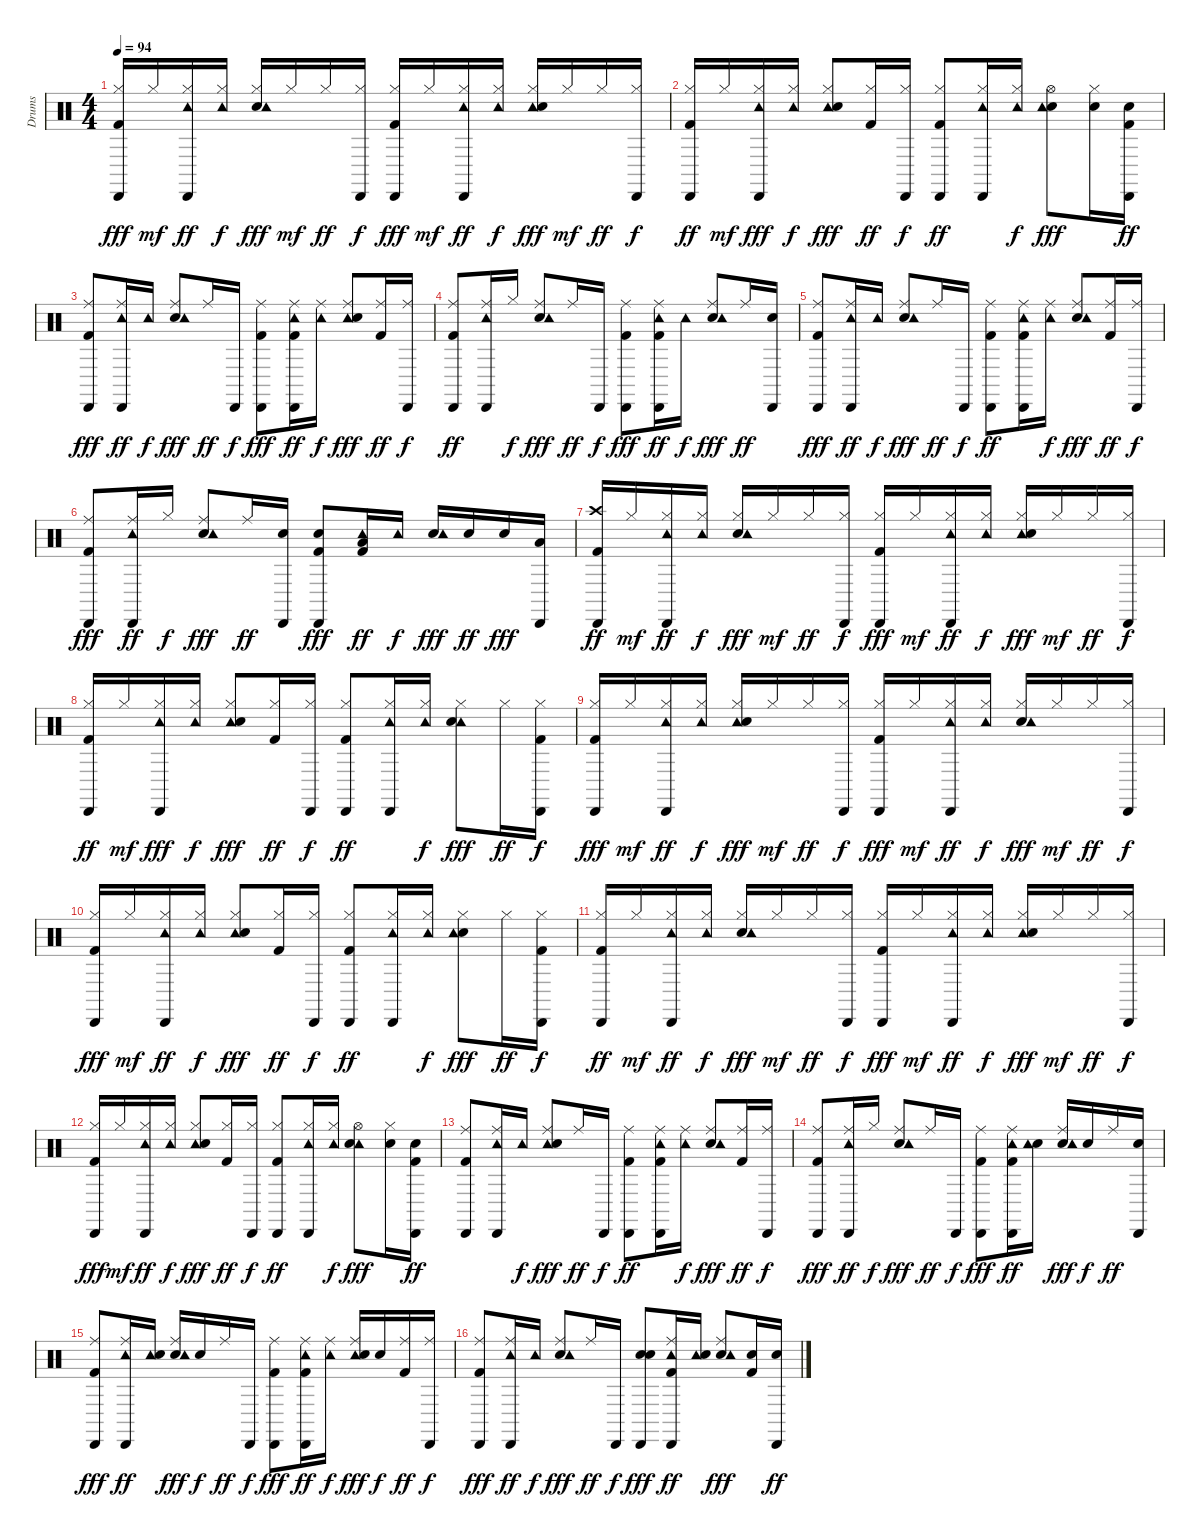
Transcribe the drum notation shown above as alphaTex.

\track ("Drums" "Drums") {instrument percussion}
\staff {score}
\articulation defaults
\ts (4 4)
\tempo 94
\clef neutral
\ks c
("Kick (hit) 2" "Cabasa (hit)" "Hi-Hat (closed)").16{dy fff} "Hi-Hat (closed)".16{dy mf} ("Hi-Hat (closed)" "Tambourine (hit)" "Cabasa (hit)").16{dy ff} ("Tambourine (hit)" "Hi-Hat (closed)").16{dy f} ("Snare (hit) 2" "Tambourine (hit)" "Hi-Hat (closed)").16{dy fff} "Hi-Hat (closed)".16{dy mf} "Hi-Hat (closed)".16{dy ff} ("Cabasa (hit)" "Hi-Hat (closed)").16{dy f} ("Hi-Hat (closed)" "Cabasa (hit)" "Kick (hit) 2").16{dy fff} "Hi-Hat (closed)".16{dy mf} ("Cabasa (hit)" "Tambourine (hit)" "Hi-Hat (closed)").16{dy ff} ("Hi-Hat (closed)" "Tambourine (hit)").16{dy f} ("Tambourine (hit)" "Snare (hit) 2" "Hi-Hat (closed)").16{dy fff} "Hi-Hat (closed)".16{dy mf} "Hi-Hat (closed)".16{dy ff} ("Hi-Hat (closed)" "Cabasa (hit)").16{dy f} |
("Kick (hit) 2" "Hi-Hat (closed)" "Cabasa (hit)").16{dy ff} "Hi-Hat (closed)".16{dy mf} ("Cabasa (hit)" "Hi-Hat (closed)" "Tambourine (hit)").16{dy fff} ("Tambourine (hit)" "Hi-Hat (closed)").16{dy f} ("Tambourine (hit)" "Hi-Hat (closed)" "Snare (hit) 2").8{dy fff} ("Hi-Hat (closed)" "Kick (hit) 2").16{dy ff} ("Cabasa (hit)" "Hi-Hat (closed)").16{dy f} ("Hi-Hat (closed)" "Kick (hit) 2" "Cabasa (hit)").8{dy ff} ("Cabasa (hit)" "Tambourine (hit)" "Hi-Hat (closed)").16 ("Tambourine (hit)" "Hi-Hat (closed)").16{dy f} ("Snare (hit) 2" "Tambourine (hit)" "Hi-Hat (open)").8{dy fff} ("Hi-Hat (closed)" "Snare (hit) 2").16 ("Cabasa (hit)" "Snare (hit) 2" "Kick (hit) 2").16{dy ff} |
("Cabasa (hit)" "Kick (hit) 2" "Ride (middle)").8{dy fff} ("Tambourine (hit)" "Cabasa (hit)" "Ride (middle)").16{dy ff} "Tambourine (hit)".16{dy f} ("Snare (hit) 2" "Ride (middle)" "Tambourine (hit)").8{dy fff} "Ride (middle)".16{dy ff} "Cabasa (hit)".16{dy f} ("Cabasa (hit)" "Kick (hit) 2" "Ride (middle)").8{dy fff} ("Kick (hit) 2" "Ride (middle)" "Cabasa (hit)" "Tambourine (hit)").16{dy ff} ("Ride (middle)" "Tambourine (hit)").16{dy f} ("Tambourine (hit)" "Snare (hit) 2" "Ride (middle)").8{dy fff} ("Kick (hit) 2" "Ride (middle)").16{dy ff} ("Ride (middle)" "Cabasa (hit)").16{dy f} |
("Ride (middle)" "Kick (hit) 2" "Cabasa (hit)").8{dy ff} ("Tambourine (hit)" "Ride (middle)" "Cabasa (hit)").16 "Hi-Hat (closed)".16{dy f} ("Ride (middle)" "Snare (hit) 2" "Tambourine (hit)").8{dy fff} "Ride (middle)".16{dy ff} "Cabasa (hit)".16{dy f} ("Cabasa (hit)" "Ride (middle)" "Kick (hit) 2").8{dy fff} ("Tambourine (hit)" "Ride (middle)" "Cabasa (hit)" "Kick (hit) 2").16{dy ff} "Tambourine (hit)".16{dy f} ("Snare (hit) 2" "Ride (middle)" "Tambourine (hit)").8{dy fff} "Ride (middle)".16{dy ff} ("Snare (hit) 2" "Cabasa (hit)").16 |
("Cabasa (hit)" "Kick (hit) 2" "Ride (middle)").8{dy fff} ("Ride (middle)" "Tambourine (hit)" "Cabasa (hit)").16{dy ff} "Tambourine (hit)".16{dy f} ("Ride (middle)" "Snare (hit) 2" "Tambourine (hit)").8{dy fff} "Ride (middle)".16{dy ff} "Cabasa (hit)".16{dy f} ("Ride (middle)" "Kick (hit) 2" "Cabasa (hit)").8{dy ff} ("Cabasa (hit)" "Kick (hit) 2" "Tambourine (hit)" "Ride (middle)").16 ("Ride (middle)" "Tambourine (hit)").16{dy f} ("Snare (hit) 2" "Tambourine (hit)" "Ride (middle)").8{dy fff} ("Ride (middle)" "Kick (hit) 2").16{dy ff} ("Ride (middle)" "Cabasa (hit)").16{dy f} |
("Cabasa (hit)" "Ride (middle)" "Kick (hit) 2").8{dy fff} ("Ride (middle)" "Cabasa (hit)" "Tambourine (hit)").16{dy ff} "Hi-Hat (closed)".16{dy f} ("Snare (hit) 2" "Ride (middle)" "Tambourine (hit)").8{dy fff} "Ride (middle)".16{dy ff} ("Snare (hit) 2" "Cabasa (hit)").16 ("Cabasa (hit)" "Snare (hit) 2" "Kick (hit) 2").8{dy fff} ("Tambourine (hit)" "Low Tom (hit)" "Kick (hit) 2").16{dy ff} "Tambourine (hit)".16{dy f} ("Snare (hit) 2" "Tambourine (hit)").16{dy fff} "Snare (hit) 2".16{dy ff} "Snare (hit) 2".16{dy fff} ("Low Floor Tom (hit)" "Cabasa (hit)").16 |
("Crash high (hit)" "Kick (hit) 2" "Cabasa (hit)").16{dy ff} "Hi-Hat (closed)".16{dy mf} ("Cabasa (hit)" "Hi-Hat (closed)" "Tambourine (hit)").16{dy ff} ("Tambourine (hit)" "Hi-Hat (closed)").16{dy f} ("Snare (hit) 2" "Hi-Hat (closed)" "Tambourine (hit)").16{dy fff} "Hi-Hat (closed)".16{dy mf} "Hi-Hat (closed)".16{dy ff} ("Cabasa (hit)" "Hi-Hat (closed)").16{dy f} ("Cabasa (hit)" "Kick (hit) 2" "Hi-Hat (closed)").16{dy fff} "Hi-Hat (closed)".16{dy mf} ("Hi-Hat (closed)" "Cabasa (hit)" "Tambourine (hit)").16{dy ff} ("Tambourine (hit)" "Hi-Hat (closed)").16{dy f} ("Tambourine (hit)" "Snare (hit) 2" "Hi-Hat (closed)").16{dy fff} "Hi-Hat (closed)".16{dy mf} "Hi-Hat (closed)".16{dy ff} ("Cabasa (hit)" "Hi-Hat (closed)").16{dy f} |
("Kick (hit) 2" "Hi-Hat (closed)" "Cabasa (hit)").16{dy ff} "Hi-Hat (closed)".16{dy mf} ("Cabasa (hit)" "Hi-Hat (closed)" "Tambourine (hit)").16{dy fff} ("Tambourine (hit)" "Hi-Hat (closed)").16{dy f} ("Tambourine (hit)" "Hi-Hat (closed)" "Snare (hit) 2").8{dy fff} ("Hi-Hat (closed)" "Kick (hit) 2").16{dy ff} ("Hi-Hat (closed)" "Cabasa (hit)").16{dy f} ("Kick (hit) 2" "Hi-Hat (closed)" "Cabasa (hit)").8{dy ff} ("Hi-Hat (closed)" "Cabasa (hit)" "Tambourine (hit)").16 ("Hi-Hat (closed)" "Tambourine (hit)").16{dy f} ("Tambourine (hit)" "Snare (hit) 2" "Hi-Hat (closed)").8{dy fff} "Hi-Hat (closed)".16{dy ff} ("Hi-Hat (closed)" "Kick (hit) 2" "Cabasa (hit)").16{dy f} |
("Hi-Hat (closed)" "Cabasa (hit)" "Kick (hit) 2").16{dy fff} "Hi-Hat (closed)".16{dy mf} ("Cabasa (hit)" "Hi-Hat (closed)" "Tambourine (hit)").16{dy ff} ("Tambourine (hit)" "Hi-Hat (closed)").16{dy f} ("Hi-Hat (closed)" "Tambourine (hit)" "Snare (hit) 2").16{dy fff} "Hi-Hat (closed)".16{dy mf} "Hi-Hat (closed)".16{dy ff} ("Cabasa (hit)" "Hi-Hat (closed)").16{dy f} ("Cabasa (hit)" "Kick (hit) 2" "Hi-Hat (closed)").16{dy fff} "Hi-Hat (closed)".16{dy mf} ("Tambourine (hit)" "Cabasa (hit)" "Hi-Hat (closed)").16{dy ff} ("Tambourine (hit)" "Hi-Hat (closed)").16{dy f} ("Snare (hit) 2" "Hi-Hat (closed)" "Tambourine (hit)").16{dy fff} "Hi-Hat (closed)".16{dy mf} "Hi-Hat (closed)".16{dy ff} ("Hi-Hat (closed)" "Cabasa (hit)").16{dy f} |
("Kick (hit) 2" "Cabasa (hit)" "Hi-Hat (closed)").16{dy fff} "Hi-Hat (closed)".16{dy mf} ("Tambourine (hit)" "Hi-Hat (closed)" "Cabasa (hit)").16{dy ff} ("Hi-Hat (closed)" "Tambourine (hit)").16{dy f} ("Tambourine (hit)" "Snare (hit) 2" "Hi-Hat (closed)").8{dy fff} ("Hi-Hat (closed)" "Kick (hit) 2").16{dy ff} ("Cabasa (hit)" "Hi-Hat (closed)").16{dy f} ("Hi-Hat (closed)" "Kick (hit) 2" "Cabasa (hit)").8{dy ff} ("Cabasa (hit)" "Tambourine (hit)" "Hi-Hat (closed)").16 ("Tambourine (hit)" "Hi-Hat (closed)").16{dy f} ("Hi-Hat (closed)" "Snare (hit) 2" "Tambourine (hit)").8{dy fff} "Hi-Hat (closed)".16{dy ff} ("Cabasa (hit)" "Kick (hit) 2" "Hi-Hat (closed)").16{dy f} |
("Kick (hit) 2" "Hi-Hat (closed)" "Cabasa (hit)").16{dy ff} "Hi-Hat (closed)".16{dy mf} ("Cabasa (hit)" "Tambourine (hit)" "Hi-Hat (closed)").16{dy ff} ("Hi-Hat (closed)" "Tambourine (hit)").16{dy f} ("Hi-Hat (closed)" "Snare (hit) 2" "Tambourine (hit)").16{dy fff} "Hi-Hat (closed)".16{dy mf} "Hi-Hat (closed)".16{dy ff} ("Hi-Hat (closed)" "Cabasa (hit)").16{dy f} ("Hi-Hat (closed)" "Cabasa (hit)" "Kick (hit) 2").16{dy fff} "Hi-Hat (closed)".16{dy mf} ("Cabasa (hit)" "Tambourine (hit)" "Hi-Hat (closed)").16{dy ff} ("Hi-Hat (closed)" "Tambourine (hit)").16{dy f} ("Hi-Hat (closed)" "Tambourine (hit)" "Snare (hit) 2").16{dy fff} "Hi-Hat (closed)".16{dy mf} "Hi-Hat (closed)".16{dy ff} ("Cabasa (hit)" "Hi-Hat (closed)").16{dy f} |
("Hi-Hat (closed)" "Cabasa (hit)" "Kick (hit) 2").16{dy fff} "Hi-Hat (closed)".16{dy mf} ("Hi-Hat (closed)" "Tambourine (hit)" "Cabasa (hit)").16{dy ff} ("Hi-Hat (closed)" "Tambourine (hit)").16{dy f} ("Hi-Hat (closed)" "Tambourine (hit)" "Snare (hit) 2").8{dy fff} ("Kick (hit) 2" "Hi-Hat (closed)").16{dy ff} ("Hi-Hat (closed)" "Cabasa (hit)").16{dy f} ("Kick (hit) 2" "Hi-Hat (closed)" "Cabasa (hit)").8{dy ff} ("Cabasa (hit)" "Hi-Hat (closed)" "Tambourine (hit)").16 ("Tambourine (hit)" "Hi-Hat (closed)").16{dy f} ("Tambourine (hit)" "Hi-Hat (open)" "Snare (hit) 2").8{dy fff} ("Hi-Hat (closed)" "Snare (hit) 2").16 ("Kick (hit) 2" "Cabasa (hit)" "Snare (hit) 2").16{dy ff} |
("Kick (hit) 2" "Ride (middle)" "Cabasa (hit)").8 ("Cabasa (hit)" "Ride (middle)" "Tambourine (hit)").16 "Tambourine (hit)".16{dy f} ("Ride (middle)" "Tambourine (hit)" "Snare (hit) 2").8{dy fff} "Ride (middle)".16{dy ff} "Cabasa (hit)".16{dy f} ("Ride (middle)" "Kick (hit) 2" "Cabasa (hit)").8{dy ff} ("Tambourine (hit)" "Cabasa (hit)" "Ride (middle)" "Kick (hit) 2").16 ("Tambourine (hit)" "Ride (middle)").16{dy f} ("Snare (hit) 2" "Tambourine (hit)" "Ride (middle)").8{dy fff} ("Ride (middle)" "Kick (hit) 2").16{dy ff} ("Cabasa (hit)" "Ride (middle)").16{dy f} |
("Ride (middle)" "Cabasa (hit)" "Kick (hit) 2").8{dy fff} ("Cabasa (hit)" "Tambourine (hit)" "Ride (middle)").16{dy ff} "Hi-Hat (closed)".16{dy f} ("Snare (hit) 2" "Tambourine (hit)" "Ride (middle)").8{dy fff} "Ride (middle)".16{dy ff} "Cabasa (hit)".16{dy f} ("Cabasa (hit)" "Kick (hit) 2" "Ride (middle)").8{dy fff} ("Cabasa (hit)" "Tambourine (hit)" "Kick (hit) 2" "Ride (middle)").16{dy ff} ("Snare (hit) 2" "Tambourine (hit)").16 ("Snare (hit) 2" "Tambourine (hit)" "Ride (middle)").16{dy fff} "Snare (hit) 2".16{dy f} "Ride (middle)".16{dy ff} ("Cabasa (hit)" "Snare (hit) 2").16 |
("Kick (hit) 2" "Cabasa (hit)" "Ride (middle)").8{dy fff} ("Tambourine (hit)" "Ride (middle)" "Cabasa (hit)").16{dy ff} ("Tambourine (hit)" "Snare (hit) 2").16 ("Snare (hit) 2" "Ride (middle)" "Tambourine (hit)").16{dy fff} "Snare (hit) 2".16{dy f} "Ride (middle)".16{dy ff} "Cabasa (hit)".16{dy f} ("Cabasa (hit)" "Ride (middle)" "Kick (hit) 2").8{dy fff} ("Tambourine (hit)" "Ride (middle)" "Kick (hit) 2" "Cabasa (hit)").16{dy ff} ("Tambourine (hit)" "Ride (middle)").16{dy f} ("Tambourine (hit)" "Snare (hit) 2" "Ride (middle)").16{dy fff} "Snare (hit) 2".16{dy f} ("Kick (hit) 2" "Ride (middle)").16{dy ff} ("Cabasa (hit)" "Ride (middle)").16{dy f} |
("Cabasa (hit)" "Kick (hit) 2" "Ride (middle)").8{dy fff} ("Ride (middle)" "Cabasa (hit)" "Tambourine (hit)").16{dy ff} "Tambourine (hit)".16{dy f} ("Snare (hit) 2" "Tambourine (hit)" "Ride (middle)").8{dy fff} "Ride (middle)".16{dy ff} "Cabasa (hit)".16{dy f} ("Snare (hit) 2" "Cabasa (hit)" "Snare (hit) 2").8{dy fff} ("Ride (middle)" "Kick (hit) 2" "Cabasa (hit)" "Tambourine (hit)").16{dy ff} ("Tambourine (hit)" "Snare (hit) 2").16 ("Snare (hit) 2" "Tambourine (hit)" "Ride (middle)").8{dy fff} ("Kick (hit) 2" "Snare (hit) 2").16 ("Cabasa (hit)" "Snare (hit) 2").16{dy ff}
